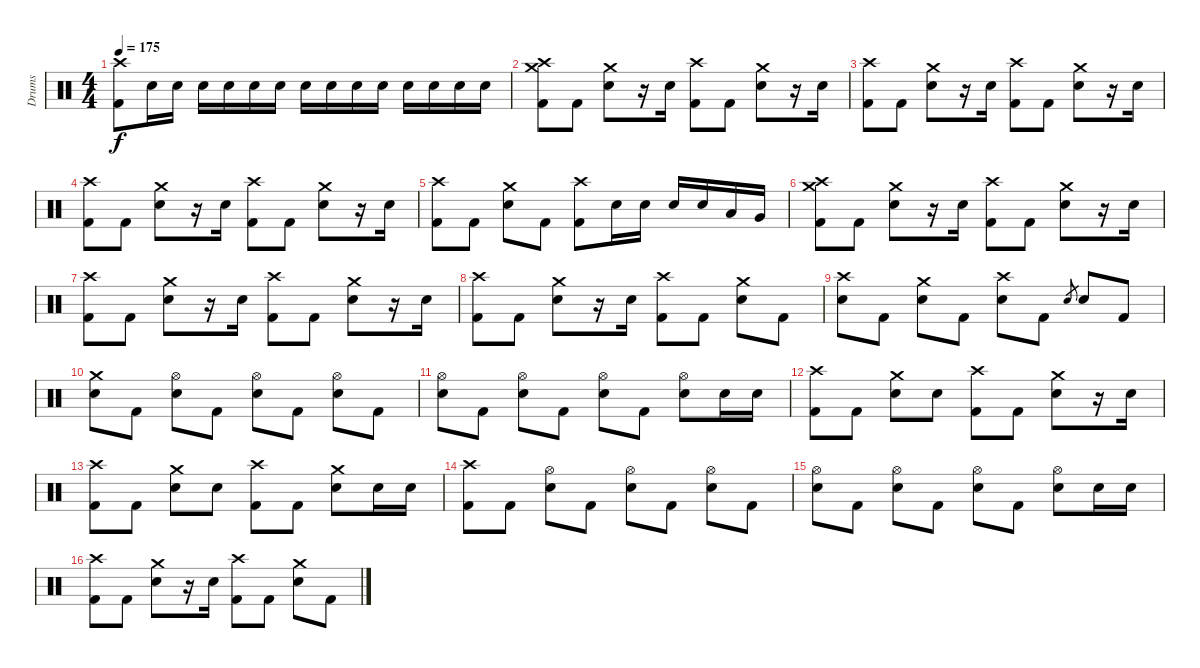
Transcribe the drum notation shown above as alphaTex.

\track ("Drums" "Drums") {instrument percussion}
\staff {score}
\articulation defaults
\ts (4 4)
\tempo 175
\clef neutral
\ks c
("Crash high (hit)" "Kick (hit) 2").8{dy f} "Electric Snare (hit)".16 "Electric Snare (hit)".16 "Electric Snare (hit)".16 "Electric Snare (hit)".16 "Electric Snare (hit)".16 "Electric Snare (hit)".16 "Electric Snare (hit)".16 "Electric Snare (hit)".16 "Electric Snare (hit)".16 "Electric Snare (hit)".16 "Electric Snare (hit)".16 "Electric Snare (hit)".16 "Electric Snare (hit)".16 "Electric Snare (hit)".16 |
("Crash high (hit)" "Crash medium (hit)" "Kick (hit) 2").8 "Kick (hit) 2".8 ("Crash medium (hit)" "Electric Snare (hit)").8 r.16 "Electric Snare (hit)".16 ("Crash high (hit)" "Kick (hit) 2").8 "Kick (hit) 2".8 ("Crash medium (hit)" "Electric Snare (hit)").8 r.16 "Electric Snare (hit)".16 |
("Crash high (hit)" "Kick (hit) 2").8 "Kick (hit) 2".8 ("Crash medium (hit)" "Electric Snare (hit)").8 r.16 "Electric Snare (hit)".16 ("Crash high (hit)" "Kick (hit) 2").8 "Kick (hit) 2".8 ("Crash medium (hit)" "Electric Snare (hit)").8 r.16 "Electric Snare (hit)".16 |
("Crash high (hit)" "Kick (hit) 2").8 "Kick (hit) 2".8 ("Crash medium (hit)" "Electric Snare (hit)").8 r.16 "Electric Snare (hit)".16 ("Crash high (hit)" "Kick (hit) 2").8 "Kick (hit) 2".8 ("Crash medium (hit)" "Electric Snare (hit)").8 r.16 "Electric Snare (hit)".16 |
("Crash high (hit)" "Kick (hit) 2").8 "Kick (hit) 2".8 ("Crash medium (hit)" "Electric Snare (hit)").8 "Kick (hit) 2".8 ("Crash high (hit)" "Kick (hit) 2").8 "Electric Snare (hit)".16 "Electric Snare (hit)".16 "Electric Snare (hit)".16 "Electric Snare (hit)".16 "Low Tom (hit)".16 "Very Low Tom (hit)".16 |
("Crash high (hit)" "Crash medium (hit)" "Kick (hit) 2").8 "Kick (hit) 2".8 ("Crash medium (hit)" "Electric Snare (hit)").8 r.16 "Electric Snare (hit)".16 ("Crash high (hit)" "Kick (hit) 2").8 "Kick (hit) 2".8 ("Crash medium (hit)" "Electric Snare (hit)").8 r.16 "Electric Snare (hit)".16 |
("Crash high (hit)" "Kick (hit) 2").8 "Kick (hit) 2".8 ("Crash medium (hit)" "Electric Snare (hit)").8 r.16 "Electric Snare (hit)".16 ("Crash high (hit)" "Kick (hit) 2").8 "Kick (hit) 2".8 ("Crash medium (hit)" "Electric Snare (hit)").8 r.16 "Electric Snare (hit)".16 |
("Crash high (hit)" "Kick (hit) 2").8 "Kick (hit) 2".8 ("Crash medium (hit)" "Electric Snare (hit)").8 r.16 "Electric Snare (hit)".16 ("Crash high (hit)" "Kick (hit) 2").8 "Kick (hit) 2".8 ("Crash medium (hit)" "Electric Snare (hit)").8 "Kick (hit) 2".8 |
("Crash high (hit)" "Electric Snare (hit)").8 "Kick (hit) 2".8 ("Crash medium (hit)" "Electric Snare (hit)").8 "Kick (hit) 2".8 ("Crash high (hit)" "Electric Snare (hit)").8 "Kick (hit) 2".8 "Electric Snare (hit)".8{gr} "Electric Snare (hit)".8 "Kick (hit) 2".8 |
("Crash medium (hit)" "Electric Snare (hit)").8 "Kick (hit) 2".8 ("Hi-Hat (open)" "Electric Snare (hit)").8 "Kick (hit) 2".8 ("Hi-Hat (open)" "Electric Snare (hit)").8 "Kick (hit) 2".8 ("Hi-Hat (open)" "Electric Snare (hit)").8 "Kick (hit) 2".8 |
("Hi-Hat (open)" "Electric Snare (hit)").8 "Kick (hit) 2".8 ("Hi-Hat (open)" "Electric Snare (hit)").8 "Kick (hit) 2".8 ("Hi-Hat (open)" "Electric Snare (hit)").8 "Kick (hit) 2".8 ("Hi-Hat (open)" "Electric Snare (hit)").8 "Electric Snare (hit)".16 "Electric Snare (hit)".16 |
("Crash high (hit)" "Kick (hit) 2").8 "Kick (hit) 2".8 ("Crash medium (hit)" "Electric Snare (hit)").8 "Electric Snare (hit)".8 ("Crash high (hit)" "Kick (hit) 2").8 "Kick (hit) 2".8 ("Crash medium (hit)" "Electric Snare (hit)").8 r.16 "Electric Snare (hit)".16 |
("Crash high (hit)" "Kick (hit) 2").8 "Kick (hit) 2".8 ("Crash medium (hit)" "Electric Snare (hit)").8 "Electric Snare (hit)".8 ("Crash high (hit)" "Kick (hit) 2").8 "Kick (hit) 2".8 ("Crash medium (hit)" "Electric Snare (hit)").8 "Electric Snare (hit)".16 "Electric Snare (hit)".16 |
("Crash high (hit)" "Kick (hit) 2").8 "Kick (hit) 2".8 ("Hi-Hat (open)" "Electric Snare (hit)").8 "Kick (hit) 2".8 ("Hi-Hat (open)" "Electric Snare (hit)").8 "Kick (hit) 2".8 ("Hi-Hat (open)" "Electric Snare (hit)").8 "Kick (hit) 2".8 |
("Hi-Hat (open)" "Electric Snare (hit)").8 "Kick (hit) 2".8 ("Hi-Hat (open)" "Electric Snare (hit)").8 "Kick (hit) 2".8 ("Hi-Hat (open)" "Electric Snare (hit)").8 "Kick (hit) 2".8 ("Hi-Hat (open)" "Electric Snare (hit)").8 "Electric Snare (hit)".16 "Electric Snare (hit)".16 |
("Crash high (hit)" "Kick (hit) 2").8 "Kick (hit) 2".8 ("Crash medium (hit)" "Electric Snare (hit)").8 r.16 "Electric Snare (hit)".16 ("Crash high (hit)" "Kick (hit) 2").8 "Kick (hit) 2".8 ("Crash medium (hit)" "Electric Snare (hit)").8 "Kick (hit) 2".8
